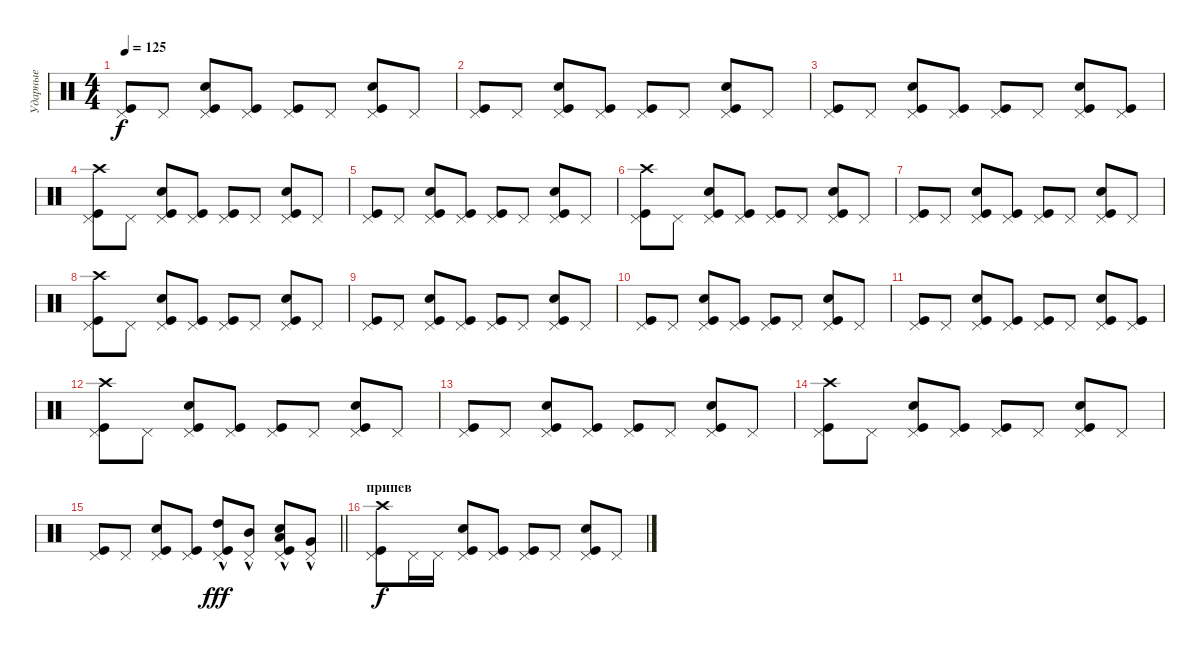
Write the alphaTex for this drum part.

\track ("Ударные" "Ударные") {instrument percussion}
\staff {score}
\articulation defaults
\ts (4 4)
\tempo 125
\clef neutral
\ks c
("Pedal Hi-Hat (hit)" "Kick (hit)").8{dy f} "Pedal Hi-Hat (hit)".8 ("Pedal Hi-Hat (hit)" "Kick (hit)" "Snare (hit) 2").8 ("Pedal Hi-Hat (hit)" "Kick (hit)").8 ("Pedal Hi-Hat (hit)" "Kick (hit)").8 "Pedal Hi-Hat (hit)".8 ("Pedal Hi-Hat (hit)" "Kick (hit)" "Snare (hit) 2").8 "Pedal Hi-Hat (hit)".8 |
("Pedal Hi-Hat (hit)" "Kick (hit)").8 "Pedal Hi-Hat (hit)".8 ("Pedal Hi-Hat (hit)" "Kick (hit)" "Snare (hit) 2").8 ("Pedal Hi-Hat (hit)" "Kick (hit)").8 ("Pedal Hi-Hat (hit)" "Kick (hit)").8 "Pedal Hi-Hat (hit)".8 ("Pedal Hi-Hat (hit)" "Kick (hit)" "Snare (hit) 2").8 "Pedal Hi-Hat (hit)".8 |
("Pedal Hi-Hat (hit)" "Kick (hit)").8 "Pedal Hi-Hat (hit)".8 ("Pedal Hi-Hat (hit)" "Kick (hit)" "Snare (hit) 2").8 ("Pedal Hi-Hat (hit)" "Kick (hit)").8 ("Pedal Hi-Hat (hit)" "Kick (hit)").8 "Pedal Hi-Hat (hit)".8 ("Pedal Hi-Hat (hit)" "Kick (hit)" "Snare (hit) 2").8 ("Pedal Hi-Hat (hit)" "Kick (hit)").8 |
("Pedal Hi-Hat (hit)" "Kick (hit)" "Crash high (hit)").8 "Pedal Hi-Hat (hit)".8 ("Pedal Hi-Hat (hit)" "Kick (hit)" "Snare (hit) 2").8 ("Pedal Hi-Hat (hit)" "Kick (hit)").8 ("Pedal Hi-Hat (hit)" "Kick (hit)").8 "Pedal Hi-Hat (hit)".8 ("Pedal Hi-Hat (hit)" "Kick (hit)" "Snare (hit) 2").8 "Pedal Hi-Hat (hit)".8 |
("Pedal Hi-Hat (hit)" "Kick (hit)").8 "Pedal Hi-Hat (hit)".8 ("Pedal Hi-Hat (hit)" "Kick (hit)" "Snare (hit) 2").8 ("Pedal Hi-Hat (hit)" "Kick (hit)").8 ("Pedal Hi-Hat (hit)" "Kick (hit)").8 "Pedal Hi-Hat (hit)".8 ("Pedal Hi-Hat (hit)" "Kick (hit)" "Snare (hit) 2").8 "Pedal Hi-Hat (hit)".8 |
("Pedal Hi-Hat (hit)" "Kick (hit)" "Crash high (hit)").8 "Pedal Hi-Hat (hit)".8 ("Pedal Hi-Hat (hit)" "Kick (hit)" "Snare (hit) 2").8 ("Pedal Hi-Hat (hit)" "Kick (hit)").8 ("Pedal Hi-Hat (hit)" "Kick (hit)").8 "Pedal Hi-Hat (hit)".8 ("Pedal Hi-Hat (hit)" "Kick (hit)" "Snare (hit) 2").8 "Pedal Hi-Hat (hit)".8 |
("Pedal Hi-Hat (hit)" "Kick (hit)").8 "Pedal Hi-Hat (hit)".8 ("Pedal Hi-Hat (hit)" "Kick (hit)" "Snare (hit) 2").8 ("Pedal Hi-Hat (hit)" "Kick (hit)").8 ("Pedal Hi-Hat (hit)" "Kick (hit)").8 "Pedal Hi-Hat (hit)".8 ("Pedal Hi-Hat (hit)" "Kick (hit)" "Snare (hit) 2").8 "Pedal Hi-Hat (hit)".8 |
("Pedal Hi-Hat (hit)" "Kick (hit)" "Crash high (hit)").8 "Pedal Hi-Hat (hit)".8 ("Pedal Hi-Hat (hit)" "Kick (hit)" "Snare (hit) 2").8 ("Pedal Hi-Hat (hit)" "Kick (hit)").8 ("Pedal Hi-Hat (hit)" "Kick (hit)").8 "Pedal Hi-Hat (hit)".8 ("Pedal Hi-Hat (hit)" "Kick (hit)" "Snare (hit) 2").8 "Pedal Hi-Hat (hit)".8 |
("Pedal Hi-Hat (hit)" "Kick (hit)").8 "Pedal Hi-Hat (hit)".8 ("Pedal Hi-Hat (hit)" "Kick (hit)" "Snare (hit) 2").8 ("Pedal Hi-Hat (hit)" "Kick (hit)").8 ("Pedal Hi-Hat (hit)" "Kick (hit)").8 "Pedal Hi-Hat (hit)".8 ("Pedal Hi-Hat (hit)" "Kick (hit)" "Snare (hit) 2").8 "Pedal Hi-Hat (hit)".8 |
("Pedal Hi-Hat (hit)" "Kick (hit)").8 "Pedal Hi-Hat (hit)".8 ("Pedal Hi-Hat (hit)" "Kick (hit)" "Snare (hit) 2").8 ("Pedal Hi-Hat (hit)" "Kick (hit)").8 ("Pedal Hi-Hat (hit)" "Kick (hit)").8 "Pedal Hi-Hat (hit)".8 ("Pedal Hi-Hat (hit)" "Kick (hit)" "Snare (hit) 2").8 "Pedal Hi-Hat (hit)".8 |
("Pedal Hi-Hat (hit)" "Kick (hit)").8 "Pedal Hi-Hat (hit)".8 ("Pedal Hi-Hat (hit)" "Kick (hit)" "Snare (hit) 2").8 ("Pedal Hi-Hat (hit)" "Kick (hit)").8 ("Pedal Hi-Hat (hit)" "Kick (hit)").8 "Pedal Hi-Hat (hit)".8 ("Pedal Hi-Hat (hit)" "Kick (hit)" "Snare (hit) 2").8 ("Pedal Hi-Hat (hit)" "Kick (hit)").8 |
("Pedal Hi-Hat (hit)" "Kick (hit)" "Crash high (hit)").8 "Pedal Hi-Hat (hit)".8 ("Pedal Hi-Hat (hit)" "Kick (hit)" "Snare (hit) 2").8 ("Pedal Hi-Hat (hit)" "Kick (hit)").8 ("Pedal Hi-Hat (hit)" "Kick (hit)").8 "Pedal Hi-Hat (hit)".8 ("Pedal Hi-Hat (hit)" "Kick (hit)" "Snare (hit) 2").8 "Pedal Hi-Hat (hit)".8 |
("Pedal Hi-Hat (hit)" "Kick (hit)").8 "Pedal Hi-Hat (hit)".8 ("Pedal Hi-Hat (hit)" "Kick (hit)" "Snare (hit) 2").8 ("Pedal Hi-Hat (hit)" "Kick (hit)").8 ("Pedal Hi-Hat (hit)" "Kick (hit)").8 "Pedal Hi-Hat (hit)".8 ("Pedal Hi-Hat (hit)" "Kick (hit)" "Snare (hit) 2").8 "Pedal Hi-Hat (hit)".8 |
("Pedal Hi-Hat (hit)" "Kick (hit)" "Crash high (hit)").8 "Pedal Hi-Hat (hit)".8 ("Pedal Hi-Hat (hit)" "Kick (hit)" "Snare (hit) 2").8 ("Pedal Hi-Hat (hit)" "Kick (hit)").8 ("Pedal Hi-Hat (hit)" "Kick (hit)").8 "Pedal Hi-Hat (hit)".8 ("Pedal Hi-Hat (hit)" "Kick (hit)" "Snare (hit) 2").8 "Pedal Hi-Hat (hit)".8 |
\barLineRight lightlight
("Pedal Hi-Hat (hit)" "Kick (hit)").8 "Pedal Hi-Hat (hit)".8 ("Pedal Hi-Hat (hit)" "Kick (hit)" "Snare (hit) 2").8 ("Pedal Hi-Hat (hit)" "Kick (hit)").8 ("Pedal Hi-Hat (hit)" "Kick (hit)" "High Tom (hit)"{hac}).8{dy fff} ("Pedal Hi-Hat (hit)" "Mid Tom (hit)"{hac}).8 ("Pedal Hi-Hat (hit)" "Kick (hit)" "Snare (hit) 2" "Low Tom (hit)"{hac}).8 ("Pedal Hi-Hat (hit)" "Very Low Tom (hit)"{hac}).8 |
\section ("" "припев")
("Pedal Hi-Hat (hit)" "Kick (hit)" "Crash high (hit)").8{dy f} "Pedal Hi-Hat (hit)".16 "Pedal Hi-Hat (hit)".16 ("Pedal Hi-Hat (hit)" "Kick (hit)" "Snare (hit) 2").8 ("Pedal Hi-Hat (hit)" "Kick (hit)").8 ("Pedal Hi-Hat (hit)" "Kick (hit)").8 "Pedal Hi-Hat (hit)".8 ("Pedal Hi-Hat (hit)" "Kick (hit)" "Snare (hit) 2").8 "Pedal Hi-Hat (hit)".8
